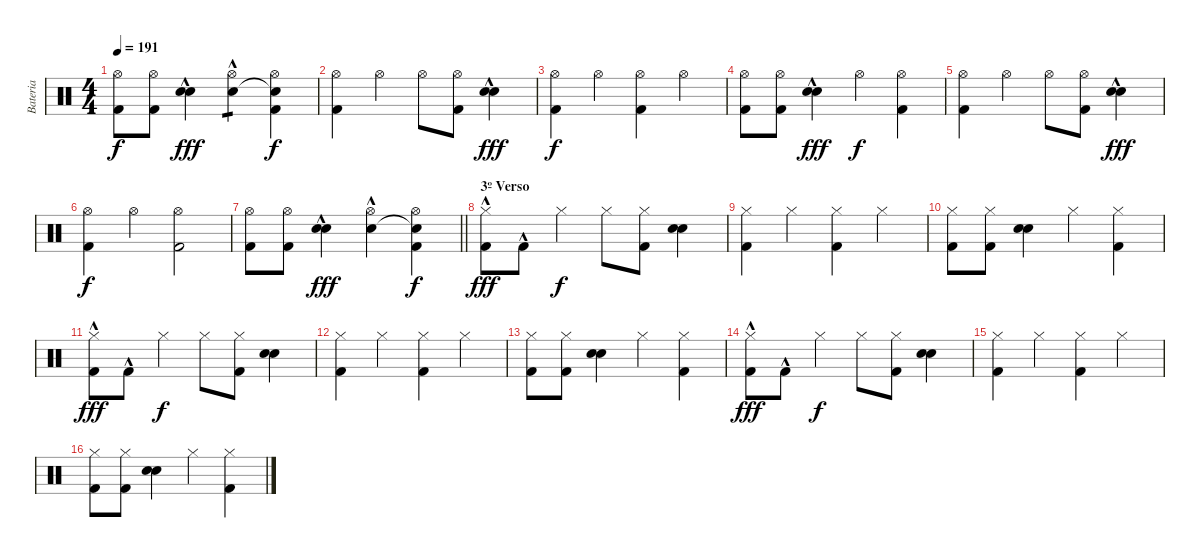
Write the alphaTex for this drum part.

\track ("Bateria" "Bateria") {instrument percussion}
\staff {score}
\articulation defaults
\ts (4 4)
\tempo 191
\clef neutral
\ks c
("Hi-Hat (open)" "Kick (hit) 2").8{dy f} ("Hi-Hat (open)" "Kick (hit) 2").8 ("Electric Snare (hit)"{hac} "Electric Snare (hit)"{hac}).4{dy fff} ("Hi-Hat (open)" "Electric Snare (hit)"{hac}).4{tp 1} ("Hi-Hat (open)" "Snare (hit)"{t} "Kick (hit) 2").4{dy f} |
("Hi-Hat (open)" "Kick (hit) 2").4 "Hi-Hat (open)".4 "Hi-Hat (open)".8 ("Hi-Hat (open)" "Kick (hit) 2").8 ("Electric Snare (hit)"{hac} "Electric Snare (hit)"{hac}).4{dy fff} |
("Hi-Hat (open)" "Kick (hit) 2").4{dy f} "Hi-Hat (open)".4 ("Hi-Hat (open)" "Kick (hit) 2").4 "Hi-Hat (open)".4 |
("Hi-Hat (open)" "Kick (hit) 2").8 ("Hi-Hat (open)" "Kick (hit) 2").8 ("Electric Snare (hit)"{hac} "Electric Snare (hit)"{hac}).4{dy fff} "Hi-Hat (open)".4{dy f} ("Hi-Hat (open)" "Kick (hit) 2").4 |
("Hi-Hat (open)" "Kick (hit) 2").4 "Hi-Hat (open)".4 "Hi-Hat (open)".8 ("Hi-Hat (open)" "Kick (hit) 2").8 ("Electric Snare (hit)"{hac} "Electric Snare (hit)"{hac}).4{dy fff} |
("Hi-Hat (open)" "Kick (hit) 2").4{dy f} "Hi-Hat (open)".4 ("Hi-Hat (open)" "Kick (hit) 2").2 |
\barLineRight lightlight
("Hi-Hat (open)" "Kick (hit) 2").8 ("Hi-Hat (open)" "Kick (hit) 2").8 ("Electric Snare (hit)"{hac} "Electric Snare (hit)"{hac}).4{dy fff} ("Hi-Hat (open)" "Electric Snare (hit)"{hac}).4 ("Hi-Hat (open)" "Snare (hit)"{t} "Kick (hit) 2").4{dy f} |
\section ("" "3º Verso")
("Hi-Hat (closed)" "Kick (hit) 2"{hac}).8{dy fff} "Kick (hit) 2"{hac}.8 "Hi-Hat (closed)".4{dy f} "Hi-Hat (closed)".8 ("Hi-Hat (closed)" "Kick (hit) 2").8 ("Electric Snare (hit)" "Electric Snare (hit)").4 |
("Hi-Hat (closed)" "Kick (hit) 2").4 "Hi-Hat (closed)".4 ("Hi-Hat (closed)" "Kick (hit) 2").4 "Hi-Hat (closed)".4 |
("Hi-Hat (closed)" "Kick (hit) 2").8 ("Hi-Hat (closed)" "Kick (hit) 2").8 ("Electric Snare (hit)" "Electric Snare (hit)").4 "Hi-Hat (closed)".4 ("Hi-Hat (closed)" "Kick (hit) 2").4 |
("Hi-Hat (closed)" "Kick (hit) 2"{hac}).8{dy fff} "Kick (hit) 2"{hac}.8 "Hi-Hat (closed)".4{dy f} "Hi-Hat (closed)".8 ("Hi-Hat (closed)" "Kick (hit) 2").8 ("Electric Snare (hit)" "Electric Snare (hit)").4 |
("Hi-Hat (closed)" "Kick (hit) 2").4 "Hi-Hat (closed)".4 ("Hi-Hat (closed)" "Kick (hit) 2").4 "Hi-Hat (closed)".4 |
("Hi-Hat (closed)" "Kick (hit) 2").8 ("Hi-Hat (closed)" "Kick (hit) 2").8 ("Electric Snare (hit)" "Electric Snare (hit)").4 "Hi-Hat (closed)".4 ("Hi-Hat (closed)" "Kick (hit) 2").4 |
("Hi-Hat (closed)" "Kick (hit) 2"{hac}).8{dy fff} "Kick (hit) 2"{hac}.8 "Hi-Hat (closed)".4{dy f} "Hi-Hat (closed)".8 ("Hi-Hat (closed)" "Kick (hit) 2").8 ("Electric Snare (hit)" "Electric Snare (hit)").4 |
("Hi-Hat (closed)" "Kick (hit) 2").4 "Hi-Hat (closed)".4 ("Hi-Hat (closed)" "Kick (hit) 2").4 "Hi-Hat (closed)".4 |
("Hi-Hat (closed)" "Kick (hit) 2").8 ("Hi-Hat (closed)" "Kick (hit) 2").8 ("Electric Snare (hit)" "Electric Snare (hit)").4 "Hi-Hat (closed)".4 ("Hi-Hat (closed)" "Kick (hit) 2").4
